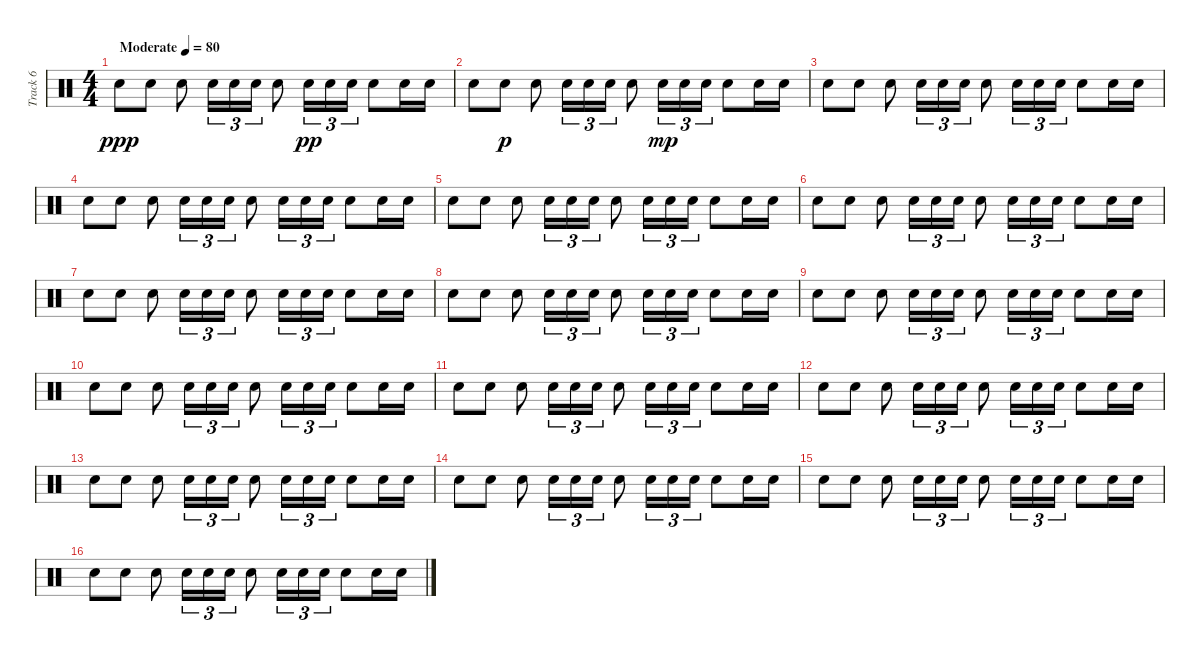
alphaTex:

\track ("Track 6" "Track 6") {instrument percussion}
\staff {score}
\articulation defaults
\ts (4 4)
\tempo (80 "Moderate")
\clef neutral
\ks c "Electric Snare (hit)".8{dy ppp} "Electric Snare (hit)".8 "Electric Snare (hit)".8 "Electric Snare (hit)".16{tu (3 2)} "Electric Snare (hit)".16{tu (3 2)} "Electric Snare (hit)".16{tu (3 2)} "Electric Snare (hit)".8 "Electric Snare (hit)".16{tu (3 2) dy pp} "Electric Snare (hit)".16{tu (3 2)} "Electric Snare (hit)".16{tu (3 2)} "Electric Snare (hit)".8 "Electric Snare (hit)".16 "Electric Snare (hit)".16
|
"Electric Snare (hit)".8 "Electric Snare (hit)".8{dy p} "Electric Snare (hit)".8 "Electric Snare (hit)".16{tu (3 2)} "Electric Snare (hit)".16{tu (3 2)} "Electric Snare (hit)".16{tu (3 2)} "Electric Snare (hit)".8 "Electric Snare (hit)".16{tu (3 2) dy mp} "Electric Snare (hit)".16{tu (3 2)} "Electric Snare (hit)".16{tu (3 2)} "Electric Snare (hit)".8 "Electric Snare (hit)".16 "Electric Snare (hit)".16 |
"Electric Snare (hit)".8 "Electric Snare (hit)".8 "Electric Snare (hit)".8 "Electric Snare (hit)".16{tu (3 2)} "Electric Snare (hit)".16{tu (3 2)} "Electric Snare (hit)".16{tu (3 2)} "Electric Snare (hit)".8 "Electric Snare (hit)".16{tu (3 2)} "Electric Snare (hit)".16{tu (3 2)} "Electric Snare (hit)".16{tu (3 2)} "Electric Snare (hit)".8 "Electric Snare (hit)".16 "Electric Snare (hit)".16 |
"Electric Snare (hit)".8 "Electric Snare (hit)".8 "Electric Snare (hit)".8 "Electric Snare (hit)".16{tu (3 2)} "Electric Snare (hit)".16{tu (3 2)} "Electric Snare (hit)".16{tu (3 2)} "Electric Snare (hit)".8 "Electric Snare (hit)".16{tu (3 2)} "Electric Snare (hit)".16{tu (3 2)} "Electric Snare (hit)".16{tu (3 2)} "Electric Snare (hit)".8 "Electric Snare (hit)".16 "Electric Snare (hit)".16 |
"Electric Snare (hit)".8 "Electric Snare (hit)".8 "Electric Snare (hit)".8 "Electric Snare (hit)".16{tu (3 2)} "Electric Snare (hit)".16{tu (3 2)} "Electric Snare (hit)".16{tu (3 2)} "Electric Snare (hit)".8 "Electric Snare (hit)".16{tu (3 2)} "Electric Snare (hit)".16{tu (3 2)} "Electric Snare (hit)".16{tu (3 2)} "Electric Snare (hit)".8 "Electric Snare (hit)".16 "Electric Snare (hit)".16 |
"Electric Snare (hit)".8 "Electric Snare (hit)".8 "Electric Snare (hit)".8 "Electric Snare (hit)".16{tu (3 2)} "Electric Snare (hit)".16{tu (3 2)} "Electric Snare (hit)".16{tu (3 2)} "Electric Snare (hit)".8 "Electric Snare (hit)".16{tu (3 2)} "Electric Snare (hit)".16{tu (3 2)} "Electric Snare (hit)".16{tu (3 2)} "Electric Snare (hit)".8 "Electric Snare (hit)".16 "Electric Snare (hit)".16 |
"Electric Snare (hit)".8 "Electric Snare (hit)".8 "Electric Snare (hit)".8 "Electric Snare (hit)".16{tu (3 2)} "Electric Snare (hit)".16{tu (3 2)} "Electric Snare (hit)".16{tu (3 2)} "Electric Snare (hit)".8 "Electric Snare (hit)".16{tu (3 2)} "Electric Snare (hit)".16{tu (3 2)} "Electric Snare (hit)".16{tu (3 2)} "Electric Snare (hit)".8 "Electric Snare (hit)".16 "Electric Snare (hit)".16 |
"Electric Snare (hit)".8 "Electric Snare (hit)".8 "Electric Snare (hit)".8 "Electric Snare (hit)".16{tu (3 2)} "Electric Snare (hit)".16{tu (3 2)} "Electric Snare (hit)".16{tu (3 2)} "Electric Snare (hit)".8 "Electric Snare (hit)".16{tu (3 2)} "Electric Snare (hit)".16{tu (3 2)} "Electric Snare (hit)".16{tu (3 2)} "Electric Snare (hit)".8 "Electric Snare (hit)".16 "Electric Snare (hit)".16 |
"Electric Snare (hit)".8 "Electric Snare (hit)".8 "Electric Snare (hit)".8 "Electric Snare (hit)".16{tu (3 2)} "Electric Snare (hit)".16{tu (3 2)} "Electric Snare (hit)".16{tu (3 2)} "Electric Snare (hit)".8 "Electric Snare (hit)".16{tu (3 2)} "Electric Snare (hit)".16{tu (3 2)} "Electric Snare (hit)".16{tu (3 2)} "Electric Snare (hit)".8 "Electric Snare (hit)".16 "Electric Snare (hit)".16 |
"Electric Snare (hit)".8 "Electric Snare (hit)".8 "Electric Snare (hit)".8 "Electric Snare (hit)".16{tu (3 2)} "Electric Snare (hit)".16{tu (3 2)} "Electric Snare (hit)".16{tu (3 2)} "Electric Snare (hit)".8 "Electric Snare (hit)".16{tu (3 2)} "Electric Snare (hit)".16{tu (3 2)} "Electric Snare (hit)".16{tu (3 2)} "Electric Snare (hit)".8 "Electric Snare (hit)".16 "Electric Snare (hit)".16 |
"Electric Snare (hit)".8 "Electric Snare (hit)".8 "Electric Snare (hit)".8 "Electric Snare (hit)".16{tu (3 2)} "Electric Snare (hit)".16{tu (3 2)} "Electric Snare (hit)".16{tu (3 2)} "Electric Snare (hit)".8 "Electric Snare (hit)".16{tu (3 2)} "Electric Snare (hit)".16{tu (3 2)} "Electric Snare (hit)".16{tu (3 2)} "Electric Snare (hit)".8 "Electric Snare (hit)".16 "Electric Snare (hit)".16 |
"Electric Snare (hit)".8 "Electric Snare (hit)".8 "Electric Snare (hit)".8 "Electric Snare (hit)".16{tu (3 2)} "Electric Snare (hit)".16{tu (3 2)} "Electric Snare (hit)".16{tu (3 2)} "Electric Snare (hit)".8 "Electric Snare (hit)".16{tu (3 2)} "Electric Snare (hit)".16{tu (3 2)} "Electric Snare (hit)".16{tu (3 2)} "Electric Snare (hit)".8 "Electric Snare (hit)".16 "Electric Snare (hit)".16 |
"Electric Snare (hit)".8 "Electric Snare (hit)".8 "Electric Snare (hit)".8 "Electric Snare (hit)".16{tu (3 2)} "Electric Snare (hit)".16{tu (3 2)} "Electric Snare (hit)".16{tu (3 2)} "Electric Snare (hit)".8 "Electric Snare (hit)".16{tu (3 2)} "Electric Snare (hit)".16{tu (3 2)} "Electric Snare (hit)".16{tu (3 2)} "Electric Snare (hit)".8 "Electric Snare (hit)".16 "Electric Snare (hit)".16 |
"Electric Snare (hit)".8 "Electric Snare (hit)".8 "Electric Snare (hit)".8 "Electric Snare (hit)".16{tu (3 2)} "Electric Snare (hit)".16{tu (3 2)} "Electric Snare (hit)".16{tu (3 2)} "Electric Snare (hit)".8 "Electric Snare (hit)".16{tu (3 2)} "Electric Snare (hit)".16{tu (3 2)} "Electric Snare (hit)".16{tu (3 2)} "Electric Snare (hit)".8 "Electric Snare (hit)".16 "Electric Snare (hit)".16 |
"Electric Snare (hit)".8 "Electric Snare (hit)".8 "Electric Snare (hit)".8 "Electric Snare (hit)".16{tu (3 2)} "Electric Snare (hit)".16{tu (3 2)} "Electric Snare (hit)".16{tu (3 2)} "Electric Snare (hit)".8 "Electric Snare (hit)".16{tu (3 2)} "Electric Snare (hit)".16{tu (3 2)} "Electric Snare (hit)".16{tu (3 2)} "Electric Snare (hit)".8 "Electric Snare (hit)".16 "Electric Snare (hit)".16 |
"Electric Snare (hit)".8 "Electric Snare (hit)".8 "Electric Snare (hit)".8 "Electric Snare (hit)".16{tu (3 2)} "Electric Snare (hit)".16{tu (3 2)} "Electric Snare (hit)".16{tu (3 2)} "Electric Snare (hit)".8 "Electric Snare (hit)".16{tu (3 2)} "Electric Snare (hit)".16{tu (3 2)} "Electric Snare (hit)".16{tu (3 2)} "Electric Snare (hit)".8 "Electric Snare (hit)".16 "Electric Snare (hit)".16
